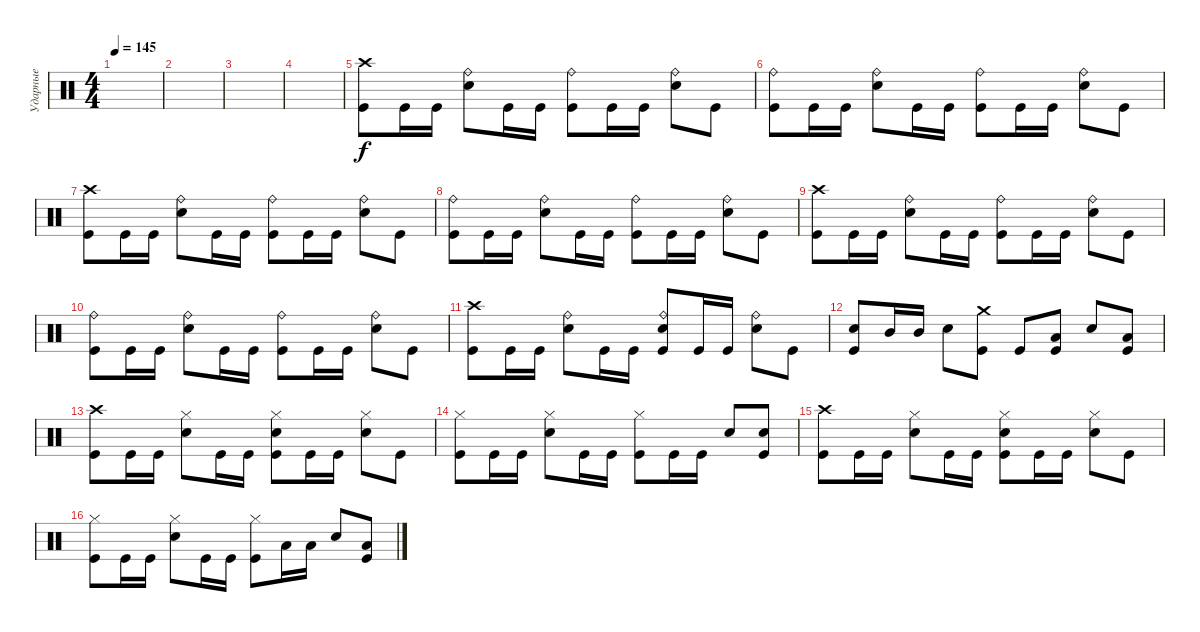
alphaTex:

\track ("Ударные" "Ударные") {instrument percussion}
\staff {score}
\articulation defaults
\ts (4 4)
\tempo 145
\clef neutral
\ks c
|
|
|
|
("Crash high (hit)" "Kick (hit)").8 "Kick (hit)".16 "Kick (hit)".16 ("Ride (bell)" "Electric Snare (hit)").8 "Kick (hit)".16 "Kick (hit)".16 ("Ride (bell)" "Kick (hit)").8 "Kick (hit)".16 "Kick (hit)".16 ("Ride (bell)" "Electric Snare (hit)").8 "Kick (hit)".8 |
("Ride (bell)" "Kick (hit)").8 "Kick (hit)".16 "Kick (hit)".16 ("Ride (bell)" "Electric Snare (hit)").8 "Kick (hit)".16 "Kick (hit)".16 ("Ride (bell)" "Kick (hit)").8 "Kick (hit)".16 "Kick (hit)".16 ("Ride (bell)" "Electric Snare (hit)").8 "Kick (hit)".8 |
("Crash high (hit)" "Kick (hit)").8 "Kick (hit)".16 "Kick (hit)".16 ("Ride (bell)" "Electric Snare (hit)").8 "Kick (hit)".16 "Kick (hit)".16 ("Ride (bell)" "Kick (hit)").8 "Kick (hit)".16 "Kick (hit)".16 ("Ride (bell)" "Electric Snare (hit)").8 "Kick (hit)".8 |
("Ride (bell)" "Kick (hit)").8 "Kick (hit)".16 "Kick (hit)".16 ("Ride (bell)" "Electric Snare (hit)").8 "Kick (hit)".16 "Kick (hit)".16 ("Ride (bell)" "Kick (hit)").8 "Kick (hit)".16 "Kick (hit)".16 ("Ride (bell)" "Electric Snare (hit)").8 "Kick (hit)".8 |
("Crash high (hit)" "Kick (hit)").8 "Kick (hit)".16 "Kick (hit)".16 ("Ride (bell)" "Electric Snare (hit)").8 "Kick (hit)".16 "Kick (hit)".16 ("Ride (bell)" "Kick (hit)").8 "Kick (hit)".16 "Kick (hit)".16 ("Ride (bell)" "Electric Snare (hit)").8 "Kick (hit)".8 |
("Ride (bell)" "Kick (hit)").8 "Kick (hit)".16 "Kick (hit)".16 ("Ride (bell)" "Electric Snare (hit)").8 "Kick (hit)".16 "Kick (hit)".16 ("Ride (bell)" "Kick (hit)").8 "Kick (hit)".16 "Kick (hit)".16 ("Ride (bell)" "Electric Snare (hit)").8 "Kick (hit)".8 |
("Crash high (hit)" "Kick (hit)").8 "Kick (hit)".16 "Kick (hit)".16 ("Ride (bell)" "Electric Snare (hit)").8 "Kick (hit)".16 "Kick (hit)".16 ("Ride (bell)" "Electric Snare (hit)" "Kick (hit)").8 "Kick (hit)".16 "Kick (hit)".16 ("Ride (bell)" "Electric Snare (hit)").8 "Kick (hit)".8 |
("Electric Snare (hit)" "Kick (hit)").8 "Mid Tom (hit)".16 "Mid Tom (hit)".16 "Electric Snare (hit)".8 ("Crash medium (hit)" "Kick (hit)").8 "Kick (hit)".8 ("Low Tom (hit)" "Kick (hit)").8 "Electric Snare (hit)".8 ("Low Tom (hit)" "Kick (hit)").8 |
("Crash high (hit)" "Kick (hit)").8 "Kick (hit)".16 "Kick (hit)".16 ("Hi-Hat (closed)" "Electric Snare (hit)").8 "Kick (hit)".16 "Kick (hit)".16 ("Hi-Hat (closed)" "Electric Snare (hit)" "Kick (hit)").8 "Kick (hit)".16 "Kick (hit)".16 ("Hi-Hat (closed)" "Electric Snare (hit)").8 "Kick (hit)".8 |
("Hi-Hat (closed)" "Kick (hit)").8 "Kick (hit)".16 "Kick (hit)".16 ("Hi-Hat (closed)" "Electric Snare (hit)").8 "Kick (hit)".16 "Kick (hit)".16 ("Hi-Hat (closed)" "Kick (hit)").8 "Kick (hit)".16 "Kick (hit)".16 "Electric Snare (hit)".8 ("Electric Snare (hit)" "Kick (hit)").8 |
("Crash high (hit)" "Kick (hit)").8 "Kick (hit)".16 "Kick (hit)".16 ("Hi-Hat (closed)" "Electric Snare (hit)").8 "Kick (hit)".16 "Kick (hit)".16 ("Hi-Hat (closed)" "Electric Snare (hit)" "Kick (hit)").8 "Kick (hit)".16 "Kick (hit)".16 ("Hi-Hat (closed)" "Electric Snare (hit)").8 "Kick (hit)".8 |
("Hi-Hat (closed)" "Kick (hit)").8 "Kick (hit)".16 "Kick (hit)".16 ("Hi-Hat (closed)" "Electric Snare (hit)").8 "Kick (hit)".16 "Kick (hit)".16 ("Hi-Hat (closed)" "Kick (hit)").8 "Low Tom (hit)".16 "Low Tom (hit)".16 "Electric Snare (hit)".8 ("Low Tom (hit)" "Kick (hit)").8
